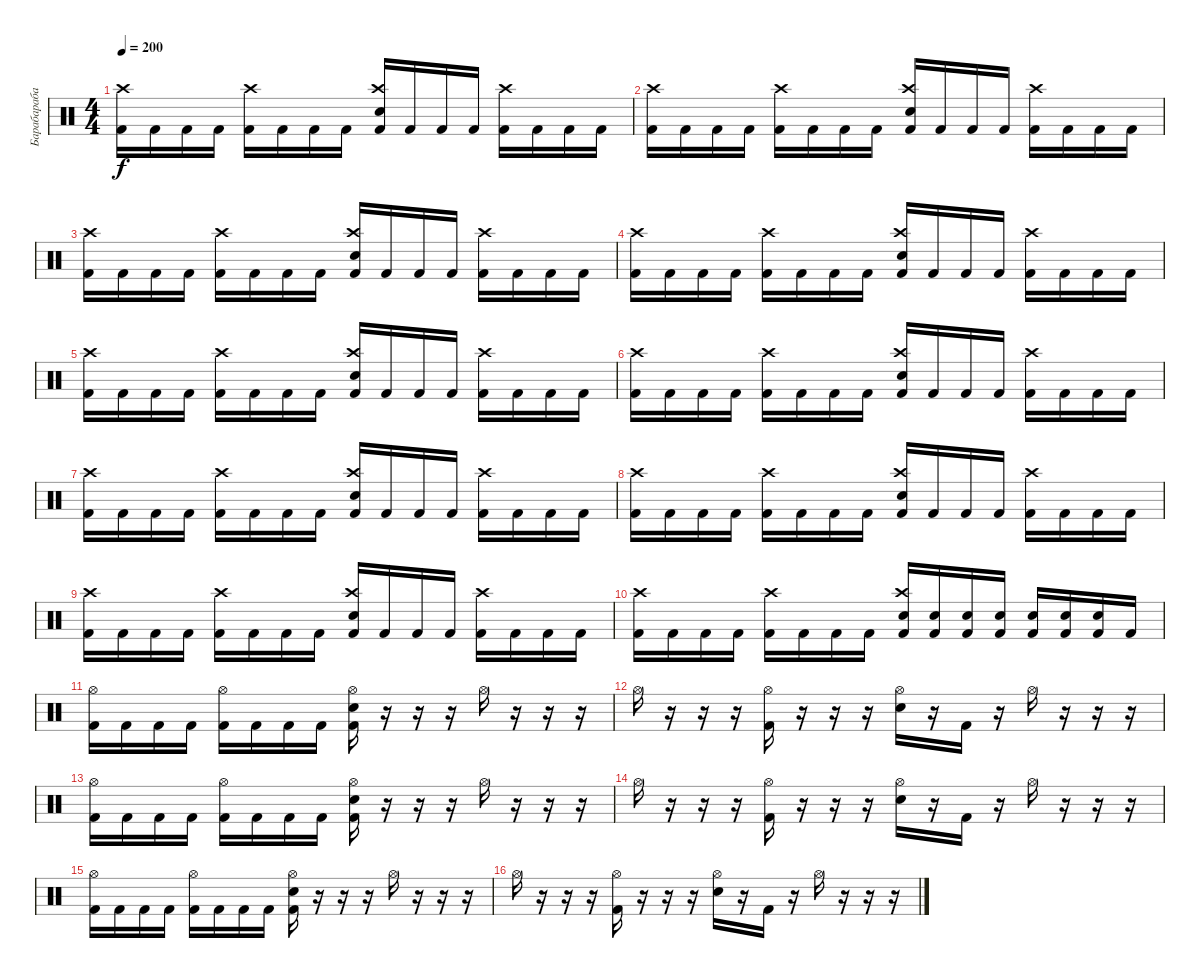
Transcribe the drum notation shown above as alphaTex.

\track ("Барабарабаны" "Барабараба") {instrument percussion}
\staff {score}
\articulation defaults
\ts (4 4)
\tempo 200
\clef neutral
\ks c
("Kick (hit) 2" "Crash high (hit)").16{dy f} "Kick (hit) 2".16 "Kick (hit) 2".16 "Kick (hit) 2".16 ("Kick (hit) 2" "Crash high (hit)").16 "Kick (hit) 2".16 "Kick (hit) 2".16 "Kick (hit) 2".16 ("Kick (hit) 2" "Electric Snare (hit)" "Crash high (hit)").16 "Kick (hit) 2".16 "Kick (hit) 2".16 "Kick (hit) 2".16 ("Kick (hit) 2" "Crash high (hit)").16 "Kick (hit) 2".16 "Kick (hit) 2".16 "Kick (hit) 2".16 |
("Kick (hit) 2" "Crash high (hit)").16 "Kick (hit) 2".16 "Kick (hit) 2".16 "Kick (hit) 2".16 ("Kick (hit) 2" "Crash high (hit)").16 "Kick (hit) 2".16 "Kick (hit) 2".16 "Kick (hit) 2".16 ("Kick (hit) 2" "Electric Snare (hit)" "Crash high (hit)").16 "Kick (hit) 2".16 "Kick (hit) 2".16 "Kick (hit) 2".16 ("Kick (hit) 2" "Crash high (hit)").16 "Kick (hit) 2".16 "Kick (hit) 2".16 "Kick (hit) 2".16 |
("Kick (hit) 2" "Crash high (hit)").16 "Kick (hit) 2".16 "Kick (hit) 2".16 "Kick (hit) 2".16 ("Kick (hit) 2" "Crash high (hit)").16 "Kick (hit) 2".16 "Kick (hit) 2".16 "Kick (hit) 2".16 ("Kick (hit) 2" "Electric Snare (hit)" "Crash high (hit)").16 "Kick (hit) 2".16 "Kick (hit) 2".16 "Kick (hit) 2".16 ("Kick (hit) 2" "Crash high (hit)").16 "Kick (hit) 2".16 "Kick (hit) 2".16 "Kick (hit) 2".16 |
("Kick (hit) 2" "Crash high (hit)").16 "Kick (hit) 2".16 "Kick (hit) 2".16 "Kick (hit) 2".16 ("Kick (hit) 2" "Crash high (hit)").16 "Kick (hit) 2".16 "Kick (hit) 2".16 "Kick (hit) 2".16 ("Kick (hit) 2" "Electric Snare (hit)" "Crash high (hit)").16 "Kick (hit) 2".16 "Kick (hit) 2".16 "Kick (hit) 2".16 ("Kick (hit) 2" "Crash high (hit)").16 "Kick (hit) 2".16 "Kick (hit) 2".16 "Kick (hit) 2".16 |
("Kick (hit) 2" "Crash high (hit)").16 "Kick (hit) 2".16 "Kick (hit) 2".16 "Kick (hit) 2".16 ("Kick (hit) 2" "Crash high (hit)").16 "Kick (hit) 2".16 "Kick (hit) 2".16 "Kick (hit) 2".16 ("Kick (hit) 2" "Electric Snare (hit)" "Crash high (hit)").16 "Kick (hit) 2".16 "Kick (hit) 2".16 "Kick (hit) 2".16 ("Kick (hit) 2" "Crash high (hit)").16 "Kick (hit) 2".16 "Kick (hit) 2".16 "Kick (hit) 2".16 |
("Kick (hit) 2" "Crash high (hit)").16 "Kick (hit) 2".16 "Kick (hit) 2".16 "Kick (hit) 2".16 ("Kick (hit) 2" "Crash high (hit)").16 "Kick (hit) 2".16 "Kick (hit) 2".16 "Kick (hit) 2".16 ("Kick (hit) 2" "Electric Snare (hit)" "Crash high (hit)").16 "Kick (hit) 2".16 "Kick (hit) 2".16 "Kick (hit) 2".16 ("Kick (hit) 2" "Crash high (hit)").16 "Kick (hit) 2".16 "Kick (hit) 2".16 "Kick (hit) 2".16 |
("Kick (hit) 2" "Crash high (hit)").16 "Kick (hit) 2".16 "Kick (hit) 2".16 "Kick (hit) 2".16 ("Kick (hit) 2" "Crash high (hit)").16 "Kick (hit) 2".16 "Kick (hit) 2".16 "Kick (hit) 2".16 ("Kick (hit) 2" "Electric Snare (hit)" "Crash high (hit)").16 "Kick (hit) 2".16 "Kick (hit) 2".16 "Kick (hit) 2".16 ("Kick (hit) 2" "Crash high (hit)").16 "Kick (hit) 2".16 "Kick (hit) 2".16 "Kick (hit) 2".16 |
("Kick (hit) 2" "Crash high (hit)").16 "Kick (hit) 2".16 "Kick (hit) 2".16 "Kick (hit) 2".16 ("Kick (hit) 2" "Crash high (hit)").16 "Kick (hit) 2".16 "Kick (hit) 2".16 "Kick (hit) 2".16 ("Kick (hit) 2" "Electric Snare (hit)" "Crash high (hit)").16 "Kick (hit) 2".16 "Kick (hit) 2".16 "Kick (hit) 2".16 ("Kick (hit) 2" "Crash high (hit)").16 "Kick (hit) 2".16 "Kick (hit) 2".16 "Kick (hit) 2".16 |
("Kick (hit) 2" "Crash high (hit)").16 "Kick (hit) 2".16 "Kick (hit) 2".16 "Kick (hit) 2".16 ("Kick (hit) 2" "Crash high (hit)").16 "Kick (hit) 2".16 "Kick (hit) 2".16 "Kick (hit) 2".16 ("Kick (hit) 2" "Electric Snare (hit)" "Crash high (hit)").16 "Kick (hit) 2".16 "Kick (hit) 2".16 "Kick (hit) 2".16 ("Kick (hit) 2" "Crash high (hit)").16 "Kick (hit) 2".16 "Kick (hit) 2".16 "Kick (hit) 2".16 |
("Kick (hit) 2" "Crash high (hit)").16 "Kick (hit) 2".16 "Kick (hit) 2".16 "Kick (hit) 2".16 ("Kick (hit) 2" "Crash high (hit)").16 "Kick (hit) 2".16 "Kick (hit) 2".16 "Kick (hit) 2".16 ("Kick (hit) 2" "Electric Snare (hit)" "Crash high (hit)").16 ("Kick (hit) 2" "Snare (hit) 2").16 ("Kick (hit) 2" "Electric Snare (hit)").16 ("Kick (hit) 2" "Snare (hit) 2").16 ("Kick (hit) 2" "Electric Snare (hit)").16 ("Kick (hit) 2" "Snare (hit) 2").16 ("Kick (hit) 2" "Electric Snare (hit)").16 "Kick (hit) 2".16 |
("Kick (hit) 2" "Hi-Hat (open)").16 "Kick (hit) 2".16 "Kick (hit) 2".16 "Kick (hit) 2".16 ("Kick (hit) 2" "Hi-Hat (open)").16 "Kick (hit) 2".16 "Kick (hit) 2".16 "Kick (hit) 2".16 ("Kick (hit) 2" "Electric Snare (hit)" "Hi-Hat (open)").16 r.16 r.16 r.16 "Hi-Hat (open)".16 r.16 r.16 r.16 |
"Hi-Hat (open)".16 r.16 r.16 r.16 ("Hi-Hat (open)" "Kick (hit) 2").16 r.16 r.16 r.16 ("Hi-Hat (open)" "Electric Snare (hit)").16 r.16 "Kick (hit) 2".16 r.16 "Hi-Hat (open)".16 r.16 r.16 r.16 |
("Kick (hit) 2" "Hi-Hat (open)").16 "Kick (hit) 2".16 "Kick (hit) 2".16 "Kick (hit) 2".16 ("Kick (hit) 2" "Hi-Hat (open)").16 "Kick (hit) 2".16 "Kick (hit) 2".16 "Kick (hit) 2".16 ("Kick (hit) 2" "Electric Snare (hit)" "Hi-Hat (open)").16 r.16 r.16 r.16 "Hi-Hat (open)".16 r.16 r.16 r.16 |
"Hi-Hat (open)".16 r.16 r.16 r.16 ("Hi-Hat (open)" "Kick (hit) 2").16 r.16 r.16 r.16 ("Hi-Hat (open)" "Electric Snare (hit)").16 r.16 "Kick (hit) 2".16 r.16 "Hi-Hat (open)".16 r.16 r.16 r.16 |
("Kick (hit) 2" "Hi-Hat (open)").16 "Kick (hit) 2".16 "Kick (hit) 2".16 "Kick (hit) 2".16 ("Kick (hit) 2" "Hi-Hat (open)").16 "Kick (hit) 2".16 "Kick (hit) 2".16 "Kick (hit) 2".16 ("Kick (hit) 2" "Electric Snare (hit)" "Hi-Hat (open)").16 r.16 r.16 r.16 "Hi-Hat (open)".16 r.16 r.16 r.16 |
"Hi-Hat (open)".16 r.16 r.16 r.16 ("Hi-Hat (open)" "Kick (hit) 2").16 r.16 r.16 r.16 ("Hi-Hat (open)" "Electric Snare (hit)").16 r.16 "Kick (hit) 2".16 r.16 "Hi-Hat (open)".16 r.16 r.16 r.16
